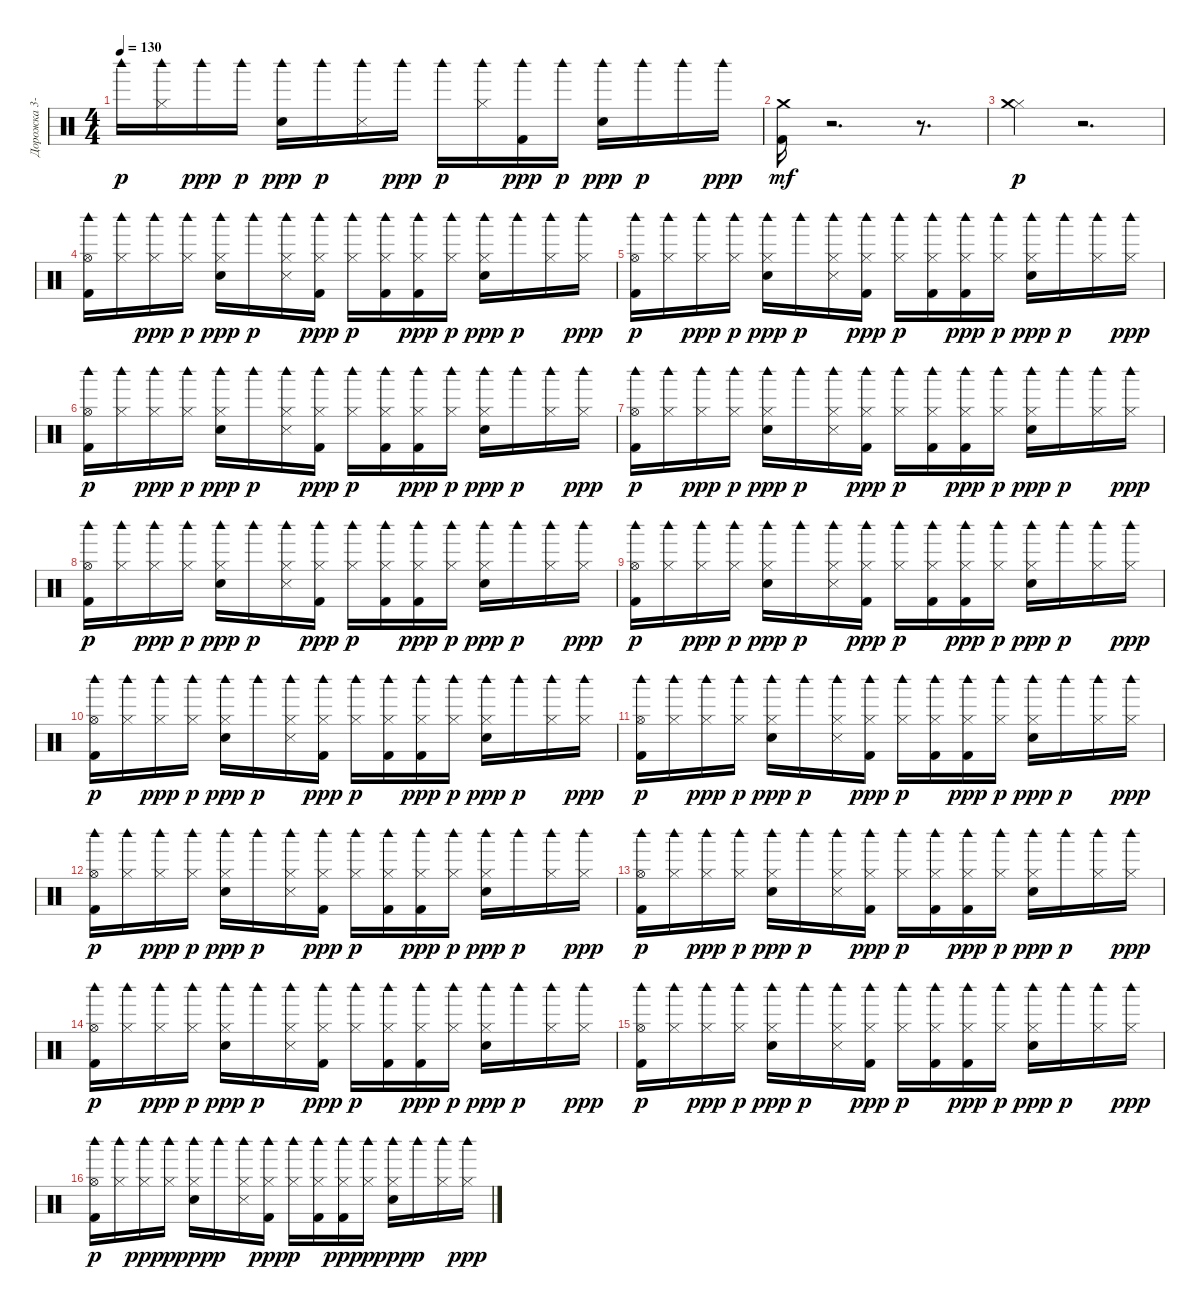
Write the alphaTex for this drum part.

\track ("Дорожка 3-4-5" "Дорожка 3-") {instrument percussion}
\staff {score}
\articulation defaults
\ts (4 4)
\tempo 130
\clef neutral
\ks c "Woodblock high (hit)".16{dy p}
("Hi-Hat (closed)" "Woodblock high (hit)").16 "Woodblock high (hit)".16{dy ppp} "Woodblock high (hit)".16{dy p} ("Electric Snare (hit)" "Woodblock high (hit)").16{dy ppp} "Woodblock high (hit)".16{dy p} ("Snare (side stick) 3" "Woodblock high (hit)").16 "Woodblock high (hit)".16{dy ppp} "Woodblock high (hit)".16{dy p} ("Hi-Hat (closed)" "Woodblock high (hit)").16 ("Kick (hit) 2" "Woodblock high (hit)").16{dy ppp} "Woodblock high (hit)".16{dy p} ("Electric Snare (hit)" "Woodblock high (hit)").16{dy ppp} "Woodblock high (hit)".16{dy p} "Woodblock high (hit)".16 "Woodblock high (hit)".16{dy ppp} |
("Kick (hit) 2" "Crash medium (hit)").16{dy mf} r.2{d} r.8{d} |
("Hi-Hat (closed)" "Crash medium (hit)").4{dy p} r.2{d} |
("Kick (hit) 2" "Hi-Hat (open)" "Woodblock high (hit)").16 ("Hi-Hat (closed)" "Woodblock high (hit)").16 ("Hi-Hat (closed)" "Woodblock high (hit)").16{dy ppp} ("Hi-Hat (closed)" "Woodblock high (hit)").16{dy p} ("Electric Snare (hit)" "Hi-Hat (closed)" "Woodblock high (hit)").16{dy ppp} "Woodblock high (hit)".16{dy p} ("Snare (side stick) 3" "Hi-Hat (closed)" "Woodblock high (hit)").16 ("Kick (hit) 2" "Hi-Hat (closed)" "Woodblock high (hit)").16{dy ppp} ("Hi-Hat (closed)" "Woodblock high (hit)").16{dy p} ("Kick (hit) 2" "Hi-Hat (closed)" "Woodblock high (hit)").16 ("Kick (hit) 2" "Hi-Hat (closed)" "Woodblock high (hit)").16{dy ppp} ("Hi-Hat (closed)" "Woodblock high (hit)").16{dy p} ("Electric Snare (hit)" "Hi-Hat (closed)" "Woodblock high (hit)").16{dy ppp} "Woodblock high (hit)".16{dy p} ("Hi-Hat (closed)" "Woodblock high (hit)").16 ("Hi-Hat (closed)" "Woodblock high (hit)").16{dy ppp} |
("Kick (hit) 2" "Hi-Hat (open)" "Woodblock high (hit)").16{dy p} ("Hi-Hat (closed)" "Woodblock high (hit)").16 ("Hi-Hat (closed)" "Woodblock high (hit)").16{dy ppp} ("Hi-Hat (closed)" "Woodblock high (hit)").16{dy p} ("Electric Snare (hit)" "Hi-Hat (closed)" "Woodblock high (hit)").16{dy ppp} "Woodblock high (hit)".16{dy p} ("Snare (side stick) 3" "Hi-Hat (closed)" "Woodblock high (hit)").16 ("Kick (hit) 2" "Hi-Hat (closed)" "Woodblock high (hit)").16{dy ppp} ("Hi-Hat (closed)" "Woodblock high (hit)").16{dy p} ("Kick (hit) 2" "Hi-Hat (closed)" "Woodblock high (hit)").16 ("Kick (hit) 2" "Hi-Hat (closed)" "Woodblock high (hit)").16{dy ppp} ("Hi-Hat (closed)" "Woodblock high (hit)").16{dy p} ("Electric Snare (hit)" "Hi-Hat (closed)" "Woodblock high (hit)").16{dy ppp} "Woodblock high (hit)".16{dy p} ("Hi-Hat (closed)" "Woodblock high (hit)").16 ("Hi-Hat (closed)" "Woodblock high (hit)").16{dy ppp} |
("Kick (hit) 2" "Hi-Hat (open)" "Woodblock high (hit)").16{dy p} ("Hi-Hat (closed)" "Woodblock high (hit)").16 ("Hi-Hat (closed)" "Woodblock high (hit)").16{dy ppp} ("Hi-Hat (closed)" "Woodblock high (hit)").16{dy p} ("Electric Snare (hit)" "Hi-Hat (closed)" "Woodblock high (hit)").16{dy ppp} "Woodblock high (hit)".16{dy p} ("Snare (side stick) 3" "Hi-Hat (closed)" "Woodblock high (hit)").16 ("Kick (hit) 2" "Hi-Hat (closed)" "Woodblock high (hit)").16{dy ppp} ("Hi-Hat (closed)" "Woodblock high (hit)").16{dy p} ("Kick (hit) 2" "Hi-Hat (closed)" "Woodblock high (hit)").16 ("Kick (hit) 2" "Hi-Hat (closed)" "Woodblock high (hit)").16{dy ppp} ("Hi-Hat (closed)" "Woodblock high (hit)").16{dy p} ("Electric Snare (hit)" "Hi-Hat (closed)" "Woodblock high (hit)").16{dy ppp} "Woodblock high (hit)".16{dy p} ("Hi-Hat (closed)" "Woodblock high (hit)").16 ("Hi-Hat (closed)" "Woodblock high (hit)").16{dy ppp} |
("Kick (hit) 2" "Hi-Hat (open)" "Woodblock high (hit)").16{dy p} ("Hi-Hat (closed)" "Woodblock high (hit)").16 ("Hi-Hat (closed)" "Woodblock high (hit)").16{dy ppp} ("Hi-Hat (closed)" "Woodblock high (hit)").16{dy p} ("Electric Snare (hit)" "Hi-Hat (closed)" "Woodblock high (hit)").16{dy ppp} "Woodblock high (hit)".16{dy p} ("Snare (side stick) 3" "Hi-Hat (closed)" "Woodblock high (hit)").16 ("Kick (hit) 2" "Hi-Hat (closed)" "Woodblock high (hit)").16{dy ppp} ("Hi-Hat (closed)" "Woodblock high (hit)").16{dy p} ("Kick (hit) 2" "Hi-Hat (closed)" "Woodblock high (hit)").16 ("Kick (hit) 2" "Hi-Hat (closed)" "Woodblock high (hit)").16{dy ppp} ("Hi-Hat (closed)" "Woodblock high (hit)").16{dy p} ("Electric Snare (hit)" "Hi-Hat (closed)" "Woodblock high (hit)").16{dy ppp} "Woodblock high (hit)".16{dy p} ("Hi-Hat (closed)" "Woodblock high (hit)").16 ("Hi-Hat (closed)" "Woodblock high (hit)").16{dy ppp} |
("Kick (hit) 2" "Hi-Hat (open)" "Woodblock high (hit)").16{dy p} ("Hi-Hat (closed)" "Woodblock high (hit)").16 ("Hi-Hat (closed)" "Woodblock high (hit)").16{dy ppp} ("Hi-Hat (closed)" "Woodblock high (hit)").16{dy p} ("Electric Snare (hit)" "Hi-Hat (closed)" "Woodblock high (hit)").16{dy ppp} "Woodblock high (hit)".16{dy p} ("Snare (side stick) 3" "Hi-Hat (closed)" "Woodblock high (hit)").16 ("Kick (hit) 2" "Hi-Hat (closed)" "Woodblock high (hit)").16{dy ppp} ("Hi-Hat (closed)" "Woodblock high (hit)").16{dy p} ("Kick (hit) 2" "Hi-Hat (closed)" "Woodblock high (hit)").16 ("Kick (hit) 2" "Hi-Hat (closed)" "Woodblock high (hit)").16{dy ppp} ("Hi-Hat (closed)" "Woodblock high (hit)").16{dy p} ("Electric Snare (hit)" "Hi-Hat (closed)" "Woodblock high (hit)").16{dy ppp} "Woodblock high (hit)".16{dy p} ("Hi-Hat (closed)" "Woodblock high (hit)").16 ("Hi-Hat (closed)" "Woodblock high (hit)").16{dy ppp} |
("Kick (hit) 2" "Hi-Hat (open)" "Woodblock high (hit)").16{dy p} ("Hi-Hat (closed)" "Woodblock high (hit)").16 ("Hi-Hat (closed)" "Woodblock high (hit)").16{dy ppp} ("Hi-Hat (closed)" "Woodblock high (hit)").16{dy p} ("Electric Snare (hit)" "Hi-Hat (closed)" "Woodblock high (hit)").16{dy ppp} "Woodblock high (hit)".16{dy p} ("Snare (side stick) 3" "Hi-Hat (closed)" "Woodblock high (hit)").16 ("Kick (hit) 2" "Hi-Hat (closed)" "Woodblock high (hit)").16{dy ppp} ("Hi-Hat (closed)" "Woodblock high (hit)").16{dy p} ("Kick (hit) 2" "Hi-Hat (closed)" "Woodblock high (hit)").16 ("Kick (hit) 2" "Hi-Hat (closed)" "Woodblock high (hit)").16{dy ppp} ("Hi-Hat (closed)" "Woodblock high (hit)").16{dy p} ("Electric Snare (hit)" "Hi-Hat (closed)" "Woodblock high (hit)").16{dy ppp} "Woodblock high (hit)".16{dy p} ("Hi-Hat (closed)" "Woodblock high (hit)").16 ("Hi-Hat (closed)" "Woodblock high (hit)").16{dy ppp} |
("Kick (hit) 2" "Hi-Hat (open)" "Woodblock high (hit)").16{dy p} ("Hi-Hat (closed)" "Woodblock high (hit)").16 ("Hi-Hat (closed)" "Woodblock high (hit)").16{dy ppp} ("Hi-Hat (closed)" "Woodblock high (hit)").16{dy p} ("Electric Snare (hit)" "Hi-Hat (closed)" "Woodblock high (hit)").16{dy ppp} "Woodblock high (hit)".16{dy p} ("Snare (side stick) 3" "Hi-Hat (closed)" "Woodblock high (hit)").16 ("Kick (hit) 2" "Hi-Hat (closed)" "Woodblock high (hit)").16{dy ppp} ("Hi-Hat (closed)" "Woodblock high (hit)").16{dy p} ("Kick (hit) 2" "Hi-Hat (closed)" "Woodblock high (hit)").16 ("Kick (hit) 2" "Hi-Hat (closed)" "Woodblock high (hit)").16{dy ppp} ("Hi-Hat (closed)" "Woodblock high (hit)").16{dy p} ("Electric Snare (hit)" "Hi-Hat (closed)" "Woodblock high (hit)").16{dy ppp} "Woodblock high (hit)".16{dy p} ("Hi-Hat (closed)" "Woodblock high (hit)").16 ("Hi-Hat (closed)" "Woodblock high (hit)").16{dy ppp} |
("Kick (hit) 2" "Hi-Hat (open)" "Woodblock high (hit)").16{dy p} ("Hi-Hat (closed)" "Woodblock high (hit)").16 ("Hi-Hat (closed)" "Woodblock high (hit)").16{dy ppp} ("Hi-Hat (closed)" "Woodblock high (hit)").16{dy p} ("Electric Snare (hit)" "Hi-Hat (closed)" "Woodblock high (hit)").16{dy ppp} "Woodblock high (hit)".16{dy p} ("Snare (side stick) 3" "Hi-Hat (closed)" "Woodblock high (hit)").16 ("Kick (hit) 2" "Hi-Hat (closed)" "Woodblock high (hit)").16{dy ppp} ("Hi-Hat (closed)" "Woodblock high (hit)").16{dy p} ("Kick (hit) 2" "Hi-Hat (closed)" "Woodblock high (hit)").16 ("Kick (hit) 2" "Hi-Hat (closed)" "Woodblock high (hit)").16{dy ppp} ("Hi-Hat (closed)" "Woodblock high (hit)").16{dy p} ("Electric Snare (hit)" "Hi-Hat (closed)" "Woodblock high (hit)").16{dy ppp} "Woodblock high (hit)".16{dy p} ("Hi-Hat (closed)" "Woodblock high (hit)").16 ("Hi-Hat (closed)" "Woodblock high (hit)").16{dy ppp} |
("Kick (hit) 2" "Hi-Hat (open)" "Woodblock high (hit)").16{dy p} ("Hi-Hat (closed)" "Woodblock high (hit)").16 ("Hi-Hat (closed)" "Woodblock high (hit)").16{dy ppp} ("Hi-Hat (closed)" "Woodblock high (hit)").16{dy p} ("Electric Snare (hit)" "Hi-Hat (closed)" "Woodblock high (hit)").16{dy ppp} "Woodblock high (hit)".16{dy p} ("Snare (side stick) 3" "Hi-Hat (closed)" "Woodblock high (hit)").16 ("Kick (hit) 2" "Hi-Hat (closed)" "Woodblock high (hit)").16{dy ppp} ("Hi-Hat (closed)" "Woodblock high (hit)").16{dy p} ("Kick (hit) 2" "Hi-Hat (closed)" "Woodblock high (hit)").16 ("Kick (hit) 2" "Hi-Hat (closed)" "Woodblock high (hit)").16{dy ppp} ("Hi-Hat (closed)" "Woodblock high (hit)").16{dy p} ("Electric Snare (hit)" "Hi-Hat (closed)" "Woodblock high (hit)").16{dy ppp} "Woodblock high (hit)".16{dy p} ("Hi-Hat (closed)" "Woodblock high (hit)").16 ("Hi-Hat (closed)" "Woodblock high (hit)").16{dy ppp} |
("Kick (hit) 2" "Hi-Hat (open)" "Woodblock high (hit)").16{dy p} ("Hi-Hat (closed)" "Woodblock high (hit)").16 ("Hi-Hat (closed)" "Woodblock high (hit)").16{dy ppp} ("Hi-Hat (closed)" "Woodblock high (hit)").16{dy p} ("Electric Snare (hit)" "Hi-Hat (closed)" "Woodblock high (hit)").16{dy ppp} "Woodblock high (hit)".16{dy p} ("Snare (side stick) 3" "Hi-Hat (closed)" "Woodblock high (hit)").16 ("Kick (hit) 2" "Hi-Hat (closed)" "Woodblock high (hit)").16{dy ppp} ("Hi-Hat (closed)" "Woodblock high (hit)").16{dy p} ("Kick (hit) 2" "Hi-Hat (closed)" "Woodblock high (hit)").16 ("Kick (hit) 2" "Hi-Hat (closed)" "Woodblock high (hit)").16{dy ppp} ("Hi-Hat (closed)" "Woodblock high (hit)").16{dy p} ("Electric Snare (hit)" "Hi-Hat (closed)" "Woodblock high (hit)").16{dy ppp} "Woodblock high (hit)".16{dy p} ("Hi-Hat (closed)" "Woodblock high (hit)").16 ("Hi-Hat (closed)" "Woodblock high (hit)").16{dy ppp} |
("Kick (hit) 2" "Hi-Hat (open)" "Woodblock high (hit)").16{dy p} ("Hi-Hat (closed)" "Woodblock high (hit)").16 ("Hi-Hat (closed)" "Woodblock high (hit)").16{dy ppp} ("Hi-Hat (closed)" "Woodblock high (hit)").16{dy p} ("Electric Snare (hit)" "Hi-Hat (closed)" "Woodblock high (hit)").16{dy ppp} "Woodblock high (hit)".16{dy p} ("Snare (side stick) 3" "Hi-Hat (closed)" "Woodblock high (hit)").16 ("Kick (hit) 2" "Hi-Hat (closed)" "Woodblock high (hit)").16{dy ppp} ("Hi-Hat (closed)" "Woodblock high (hit)").16{dy p} ("Kick (hit) 2" "Hi-Hat (closed)" "Woodblock high (hit)").16 ("Kick (hit) 2" "Hi-Hat (closed)" "Woodblock high (hit)").16{dy ppp} ("Hi-Hat (closed)" "Woodblock high (hit)").16{dy p} ("Electric Snare (hit)" "Hi-Hat (closed)" "Woodblock high (hit)").16{dy ppp} "Woodblock high (hit)".16{dy p} ("Hi-Hat (closed)" "Woodblock high (hit)").16 ("Hi-Hat (closed)" "Woodblock high (hit)").16{dy ppp} |
("Kick (hit) 2" "Hi-Hat (open)" "Woodblock high (hit)").16{dy p} ("Hi-Hat (closed)" "Woodblock high (hit)").16 ("Hi-Hat (closed)" "Woodblock high (hit)").16{dy ppp} ("Hi-Hat (closed)" "Woodblock high (hit)").16{dy p} ("Electric Snare (hit)" "Hi-Hat (closed)" "Woodblock high (hit)").16{dy ppp} "Woodblock high (hit)".16{dy p} ("Snare (side stick) 3" "Hi-Hat (closed)" "Woodblock high (hit)").16 ("Kick (hit) 2" "Hi-Hat (closed)" "Woodblock high (hit)").16{dy ppp} ("Hi-Hat (closed)" "Woodblock high (hit)").16{dy p} ("Kick (hit) 2" "Hi-Hat (closed)" "Woodblock high (hit)").16 ("Kick (hit) 2" "Hi-Hat (closed)" "Woodblock high (hit)").16{dy ppp} ("Hi-Hat (closed)" "Woodblock high (hit)").16{dy p} ("Electric Snare (hit)" "Hi-Hat (closed)" "Woodblock high (hit)").16{dy ppp} "Woodblock high (hit)".16{dy p} ("Hi-Hat (closed)" "Woodblock high (hit)").16 ("Hi-Hat (closed)" "Woodblock high (hit)").16{dy ppp} |
("Kick (hit) 2" "Hi-Hat (open)" "Woodblock high (hit)").16{dy p} ("Hi-Hat (closed)" "Woodblock high (hit)").16 ("Hi-Hat (closed)" "Woodblock high (hit)").16{dy ppp} ("Hi-Hat (closed)" "Woodblock high (hit)").16{dy p} ("Electric Snare (hit)" "Hi-Hat (closed)" "Woodblock high (hit)").16{dy ppp} "Woodblock high (hit)".16{dy p} ("Snare (side stick) 3" "Hi-Hat (closed)" "Woodblock high (hit)").16 ("Kick (hit) 2" "Hi-Hat (closed)" "Woodblock high (hit)").16{dy ppp} ("Hi-Hat (closed)" "Woodblock high (hit)").16{dy p} ("Kick (hit) 2" "Hi-Hat (closed)" "Woodblock high (hit)").16 ("Kick (hit) 2" "Hi-Hat (closed)" "Woodblock high (hit)").16{dy ppp} ("Hi-Hat (closed)" "Woodblock high (hit)").16{dy p} ("Electric Snare (hit)" "Hi-Hat (closed)" "Woodblock high (hit)").16{dy ppp} "Woodblock high (hit)".16{dy p} ("Hi-Hat (closed)" "Woodblock high (hit)").16 ("Hi-Hat (closed)" "Woodblock high (hit)").16{dy ppp}
